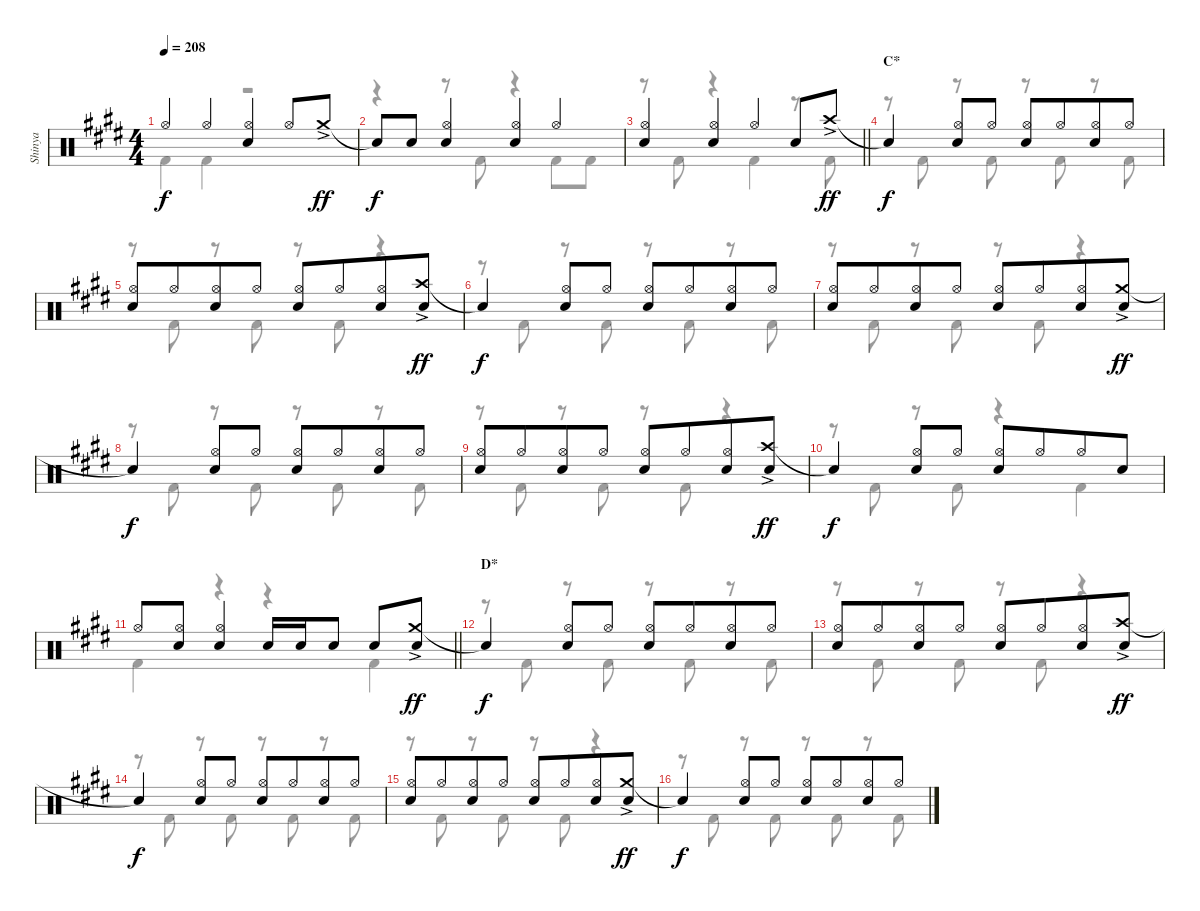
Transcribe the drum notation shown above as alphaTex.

\track ("Shinya" "Shinya") {instrument percussion}
\staff {score}
\articulation defaults
\voice
\ts (4 4)
\tempo 208
\clef neutral
\ks c#minor "Hi-Hat (open)".4{dy f} "Hi-Hat (open)".4
("Hi-Hat (open)" "Snare (hit) 2").4 "Hi-Hat (open)".8 "Crash medium (hit)"{ac}.8{dy ff} |
"Snare (hit)"{t}.8{dy f} "Snare (hit) 2".8 ("Hi-Hat (open)" "Snare (hit) 2").4 ("Hi-Hat (open)" "Snare (hit) 2").4 "Hi-Hat (open)".4 |
\barLineRight lightlight
("Hi-Hat (open)" "Snare (hit) 2").4 ("Hi-Hat (open)" "Snare (hit) 2").4 "Hi-Hat (open)".4 "Snare (hit) 2".8 "Crash high (hit)"{ac}.8{dy ff} |
\section ("" "C*")
"Snare (hit)"{t}.4{dy f} ("Hi-Hat (open)" "Snare (hit) 2").8 "Hi-Hat (open)".8 ("Hi-Hat (open)" "Snare (hit) 2").8 "Hi-Hat (open)".8{beam merge} ("Hi-Hat (open)" "Snare (hit) 2").8 "Hi-Hat (open)".8 |
("Hi-Hat (open)" "Snare (hit) 2").8 "Hi-Hat (open)".8{beam merge} ("Hi-Hat (open)" "Snare (hit) 2").8 "Hi-Hat (open)".8 ("Hi-Hat (open)" "Snare (hit) 2").8 "Hi-Hat (open)".8{beam merge} ("Hi-Hat (open)" "Snare (hit) 2").8 ("Crash high (hit)"{ac} "Snare (hit) 2").8{dy ff} |
"Snare (hit)"{t}.4{dy f} ("Hi-Hat (open)" "Snare (hit) 2").8 "Hi-Hat (open)".8 ("Hi-Hat (open)" "Snare (hit) 2").8 "Hi-Hat (open)".8{beam merge} ("Hi-Hat (open)" "Snare (hit) 2").8 "Hi-Hat (open)".8 |
("Hi-Hat (open)" "Snare (hit) 2").8 "Hi-Hat (open)".8{beam merge} ("Hi-Hat (open)" "Snare (hit) 2").8 "Hi-Hat (open)".8 ("Hi-Hat (open)" "Snare (hit) 2").8 "Hi-Hat (open)".8{beam merge} ("Hi-Hat (open)" "Snare (hit) 2").8 ("Crash medium (hit)"{ac} "Snare (hit) 2").8{dy ff} |
"Snare (hit)"{t}.4{dy f} ("Hi-Hat (open)" "Snare (hit) 2").8 "Hi-Hat (open)".8 ("Hi-Hat (open)" "Snare (hit) 2").8 "Hi-Hat (open)".8{beam merge} ("Hi-Hat (open)" "Snare (hit) 2").8 "Hi-Hat (open)".8 |
("Hi-Hat (open)" "Snare (hit) 2").8 "Hi-Hat (open)".8{beam merge} ("Hi-Hat (open)" "Snare (hit) 2").8 "Hi-Hat (open)".8 ("Hi-Hat (open)" "Snare (hit) 2").8 "Hi-Hat (open)".8{beam merge} ("Hi-Hat (open)" "Snare (hit) 2").8 ("Crash high (hit)"{ac} "Snare (hit) 2").8{dy ff} |
"Snare (hit)"{t}.4{dy f} ("Hi-Hat (open)" "Snare (hit) 2").8 "Hi-Hat (open)".8 ("Hi-Hat (open)" "Snare (hit) 2").8 "Hi-Hat (open)".8{beam merge} "Hi-Hat (open)".8 "Snare (hit) 2".8 |
\barLineRight lightlight "Hi-Hat (open)".8
("Hi-Hat (open)" "Snare (hit) 2").8 ("Hi-Hat (open)" "Snare (hit) 2").4 "Snare (hit) 2".16 "Snare (hit) 2".16 "Snare (hit) 2".8 "Snare (hit) 2".8 ("Crash medium (hit)"{ac} "Snare (hit) 2").8{dy ff} |
\section ("" "D*")
"Snare (hit)"{t}.4{dy f} ("Hi-Hat (open)" "Snare (hit) 2").8 "Hi-Hat (open)".8 ("Hi-Hat (open)" "Snare (hit) 2").8 "Hi-Hat (open)".8{beam merge} ("Hi-Hat (open)" "Snare (hit) 2").8 "Hi-Hat (open)".8 |
("Hi-Hat (open)" "Snare (hit) 2").8 "Hi-Hat (open)".8{beam merge} ("Hi-Hat (open)" "Snare (hit) 2").8 "Hi-Hat (open)".8 ("Hi-Hat (open)" "Snare (hit) 2").8 "Hi-Hat (open)".8{beam merge} ("Hi-Hat (open)" "Snare (hit) 2").8 ("Crash high (hit)"{ac} "Snare (hit) 2").8{dy ff} |
"Snare (hit)"{t}.4{dy f} ("Hi-Hat (open)" "Snare (hit) 2").8 "Hi-Hat (open)".8 ("Hi-Hat (open)" "Snare (hit) 2").8 "Hi-Hat (open)".8{beam merge} ("Hi-Hat (open)" "Snare (hit) 2").8 "Hi-Hat (open)".8 |
("Hi-Hat (open)" "Snare (hit) 2").8 "Hi-Hat (open)".8{beam merge} ("Hi-Hat (open)" "Snare (hit) 2").8 "Hi-Hat (open)".8 ("Hi-Hat (open)" "Snare (hit) 2").8 "Hi-Hat (open)".8{beam merge} ("Hi-Hat (open)" "Snare (hit) 2").8 ("Crash medium (hit)"{ac} "Snare (hit) 2").8{dy ff} |
"Snare (hit)"{t}.4{dy f} ("Hi-Hat (open)" "Snare (hit) 2").8 "Hi-Hat (open)".8 ("Hi-Hat (open)" "Snare (hit) 2").8 "Hi-Hat (open)".8{beam merge} ("Hi-Hat (open)" "Snare (hit) 2").8 "Hi-Hat (open)".8
\voice
\clef neutral
\ottava regular
\simile none
\ks c#minor "Kick (hit) 2".4{dy f} "Kick (hit) 2".4
r.2 |
r.4 r.8 "Kick (hit) 2".8 r.4 "Kick (hit) 2".8 "Kick (hit) 2".8 |
\barLineRight lightlight
r.8 "Kick (hit) 2".8 r.4 "Kick (hit) 2".4 r.8 "Kick (hit) 2".8 |
r.8 "Kick (hit) 2".8 r.8 "Kick (hit) 2".8 r.8 "Kick (hit) 2".8 r.8 "Kick (hit) 2".8 |
r.8 "Kick (hit) 2".8 r.8 "Kick (hit) 2".8 r.8 "Kick (hit) 2".8 r.4 |
r.8 "Kick (hit) 2".8 r.8 "Kick (hit) 2".8 r.8 "Kick (hit) 2".8 r.8 "Kick (hit) 2".8 |
r.8 "Kick (hit) 2".8 r.8 "Kick (hit) 2".8 r.8 "Kick (hit) 2".8 r.4 |
r.8 "Kick (hit) 2".8 r.8 "Kick (hit) 2".8 r.8 "Kick (hit) 2".8 r.8 "Kick (hit) 2".8 |
r.8 "Kick (hit) 2".8 r.8 "Kick (hit) 2".8 r.8 "Kick (hit) 2".8 r.4 |
r.8 "Kick (hit) 2".8 r.8 "Kick (hit) 2".8 r.4 "Kick (hit) 2".4 |
\barLineRight lightlight "Kick (hit) 2".4
r.4 r.4 "Kick (hit) 2".4 |
r.8 "Kick (hit) 2".8 r.8 "Kick (hit) 2".8 r.8 "Kick (hit) 2".8 r.8 "Kick (hit) 2".8 |
r.8 "Kick (hit) 2".8 r.8 "Kick (hit) 2".8 r.8 "Kick (hit) 2".8 r.4 |
r.8 "Kick (hit) 2".8 r.8 "Kick (hit) 2".8 r.8 "Kick (hit) 2".8 r.8 "Kick (hit) 2".8 |
r.8 "Kick (hit) 2".8 r.8 "Kick (hit) 2".8 r.8 "Kick (hit) 2".8 r.4 |
r.8 "Kick (hit) 2".8 r.8 "Kick (hit) 2".8 r.8 "Kick (hit) 2".8 r.8 "Kick (hit) 2".8
